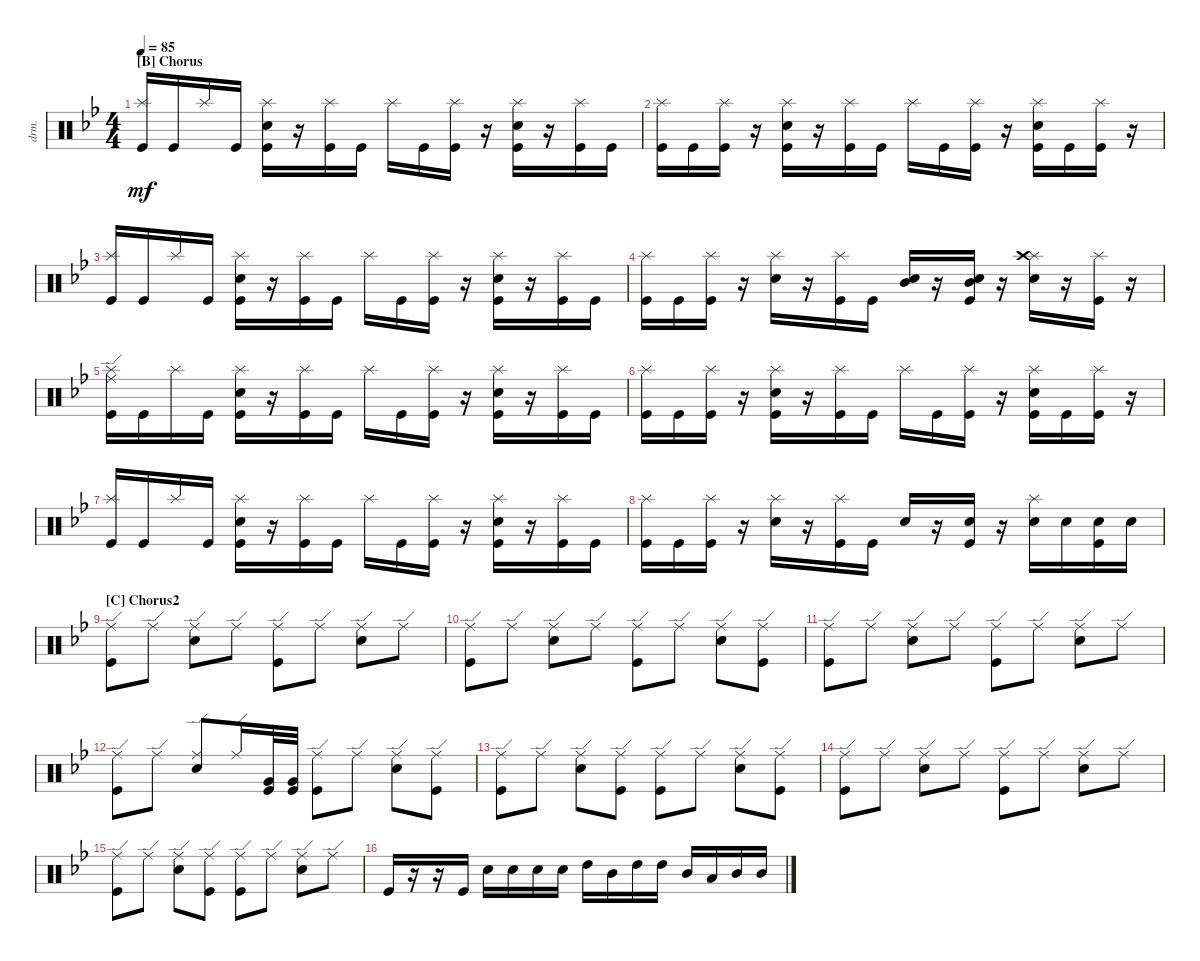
\defaultSystemsLayout 4
\bracketExtendMode groupsimilarinstruments
\otherSystemsTrackNameOrientation horizontal
\track ("Drumkit" "drm.") {solo instrument percussion}
\staff {score}
\articulation defaults
\ts (4 4)
\section ("B" "Chorus")
\scale
1.06963
\tempo 85
\accidentals auto
\clef neutral
\ottava regular
\simile none
\ks bb
("Kick (hit)"{acc forcenatural} "Splash (hit)"{acc forcenatural}).16{dy mf beam Up} "Kick (hit)"{acc forcenatural}.16{beam Up} "Splash (hit)"{acc forcenatural}.16{beam Up} "Kick (hit)"{acc forcenatural}.16{beam Up} ("Kick (hit)"{acc forcenatural} "Snare (hit) 2"{acc forcenatural} "Splash (hit)"{acc forcenatural}).16{beam Down} r.16{beam Down} ("Kick (hit)"{acc forcenatural} "Splash (hit)"{acc forcenatural}).16{beam Down} "Kick (hit)"{acc forcenatural}.16{beam Down} "Splash (hit)"{acc forcenatural}.16{beam Down} "Kick (hit)"{acc forcenatural}.16{beam Down} ("Kick (hit)"{acc forcenatural} "Splash (hit)"{acc forcenatural}).16{beam Down} r.16{beam Down} ("Kick (hit)"{acc forcenatural} "Snare (hit) 2"{acc forcenatural} "Splash (hit)"{acc forcenatural}).16{beam Down} r.16{beam Down} ("Kick (hit)"{acc forcenatural} "Splash (hit)"{acc forcenatural}).16{beam Down} "Kick (hit)"{acc forcenatural}.16{beam Down} |
\scale
0.97679 ("Kick (hit)"{acc forcenatural} "Splash (hit)"{acc forcenatural}).16{beam Down} "Kick (hit)"{acc forcenatural}.16{beam Down} ("Splash (hit)"{acc forcenatural} "Kick (hit)"{acc forcenatural}).16{beam Down} r.16{beam Down} ("Kick (hit)"{acc forcenatural} "Splash (hit)"{acc forcenatural} "Snare (hit) 2"{acc forcenatural}).16{beam Down} r.16{beam Down} ("Kick (hit)"{acc forcenatural} "Splash (hit)"{acc forcenatural}).16{beam Down} "Kick (hit)"{acc forcenatural}.16{beam Down} "Splash (hit)"{acc forcenatural}.16{beam Down} "Kick (hit)"{acc forcenatural}.16{beam Down} ("Kick (hit)"{acc forcenatural} "Splash (hit)"{acc forcenatural}).16{beam Down} r.16{beam Down} ("Kick (hit)"{acc forcenatural} "Splash (hit)"{acc forcenatural} "Snare (hit) 2"{acc forcenatural}).16{beam Down} "Kick (hit)"{acc forcenatural}.16{beam Down} ("Kick (hit)"{acc forcenatural} "Splash (hit)"{acc forcenatural}).16{beam Down} r.16{beam Down} |
\scale
0.97679 ("Kick (hit)"{acc forcenatural} "Splash (hit)"{acc forcenatural}).16{beam Up} "Kick (hit)"{acc forcenatural}.16{beam Up} "Splash (hit)"{acc forcenatural}.16{beam Up} "Kick (hit)"{acc forcenatural}.16{beam Up} ("Kick (hit)"{acc forcenatural} "Snare (hit) 2"{acc forcenatural} "Splash (hit)"{acc forcenatural}).16{beam Down} r.16{beam Down} ("Kick (hit)"{acc forcenatural} "Splash (hit)"{acc forcenatural}).16{beam Down} "Kick (hit)"{acc forcenatural}.16{beam Down} "Splash (hit)"{acc forcenatural}.16{beam Down} "Kick (hit)"{acc forcenatural}.16{beam Down} ("Kick (hit)"{acc forcenatural} "Splash (hit)"{acc forcenatural}).16{beam Down} r.16{beam Down} ("Kick (hit)"{acc forcenatural} "Snare (hit) 2"{acc forcenatural} "Splash (hit)"{acc forcenatural}).16{beam Down} r.16{beam Down} ("Kick (hit)"{acc forcenatural} "Splash (hit)"{acc forcenatural}).16{beam Down} "Kick (hit)"{acc forcenatural}.16{beam Down} |
\scale
0.97679 ("Kick (hit)"{acc forcenatural} "Splash (hit)"{acc forcenatural}).16{beam Down} "Kick (hit)"{acc forcenatural}.16{beam Down} ("Kick (hit)"{acc forcenatural} "Splash (hit)"{acc forcenatural}).16{beam Down} r.16{beam Down} ("Snare (hit) 2"{acc forcenatural} "Splash (hit)"{acc forcenatural}).16{beam Down} r.16{beam Down} ("Kick (hit)"{acc forcenatural} "Splash (hit)"{acc forcenatural}).16{beam Down} "Kick (hit)"{acc forcenatural}.16{beam Down} ("Mid Tom (hit)"{acc forcenatural} "Snare (hit) 2"{acc forcenatural}).16{beam Up} r.16{beam Up} ("Kick (hit)"{acc forcenatural} "Mid Tom (hit)"{acc forcenatural} "Snare (hit) 2"{acc forcenatural}).16{beam Up} r.16{beam Up} ("Snare (hit) 2"{acc forcenatural} "Splash (hit)"{acc forcenatural} "Crash high (hit)"{acc forcenatural}).16{beam Down} r.16{beam Down} ("Kick (hit)"{acc forcenatural} "Splash (hit)"{acc forcenatural}).16{beam Down} r.16{beam Down} |
\scale
1.06495 ("Kick (hit)"{acc forcenatural} "Splash (hit)"{acc forcenatural} "Ride (edge)"{acc forcenatural}).16{beam Down} "Kick (hit)"{acc forcenatural}.16{beam Down} "Splash (hit)"{acc forcenatural}.16{beam Down} "Kick (hit)"{acc forcenatural}.16{beam Down} ("Kick (hit)"{acc forcenatural} "Snare (hit) 2"{acc forcenatural} "Splash (hit)"{acc forcenatural}).16{beam Down} r.16{beam Down} ("Kick (hit)"{acc forcenatural} "Splash (hit)"{acc forcenatural}).16{beam Down} "Kick (hit)"{acc forcenatural}.16{beam Down} "Splash (hit)"{acc forcenatural}.16{beam Down} "Kick (hit)"{acc forcenatural}.16{beam Down} ("Kick (hit)"{acc forcenatural} "Splash (hit)"{acc forcenatural}).16{beam Down} r.16{beam Down} ("Kick (hit)"{acc forcenatural} "Snare (hit) 2"{acc forcenatural} "Splash (hit)"{acc forcenatural}).16{beam Down} r.16{beam Down} ("Kick (hit)"{acc forcenatural} "Splash (hit)"{acc forcenatural}).16{beam Down} "Kick (hit)"{acc forcenatural}.16{beam Down} |
\scale
0.972111 ("Kick (hit)"{acc forcenatural} "Splash (hit)"{acc forcenatural}).16{beam Down} "Kick (hit)"{acc forcenatural}.16{beam Down} ("Splash (hit)"{acc forcenatural} "Kick (hit)"{acc forcenatural}).16{beam Down} r.16{beam Down} ("Kick (hit)"{acc forcenatural} "Splash (hit)"{acc forcenatural} "Snare (hit) 2"{acc forcenatural}).16{beam Down} r.16{beam Down} ("Kick (hit)"{acc forcenatural} "Splash (hit)"{acc forcenatural}).16{beam Down} "Kick (hit)"{acc forcenatural}.16{beam Down} "Splash (hit)"{acc forcenatural}.16{beam Down} "Kick (hit)"{acc forcenatural}.16{beam Down} ("Kick (hit)"{acc forcenatural} "Splash (hit)"{acc forcenatural}).16{beam Down} r.16{beam Down} ("Kick (hit)"{acc forcenatural} "Splash (hit)"{acc forcenatural} "Snare (hit) 2"{acc forcenatural}).16{beam Down} "Kick (hit)"{acc forcenatural}.16{beam Down} ("Kick (hit)"{acc forcenatural} "Splash (hit)"{acc forcenatural}).16{beam Down} r.16{beam Down} |
\scale
0.972111 ("Kick (hit)"{acc forcenatural} "Splash (hit)"{acc forcenatural}).16{beam Up} "Kick (hit)"{acc forcenatural}.16{beam Up} "Splash (hit)"{acc forcenatural}.16{beam Up} "Kick (hit)"{acc forcenatural}.16{beam Up} ("Kick (hit)"{acc forcenatural} "Snare (hit) 2"{acc forcenatural} "Splash (hit)"{acc forcenatural}).16{beam Down} r.16{beam Down} ("Kick (hit)"{acc forcenatural} "Splash (hit)"{acc forcenatural}).16{beam Down} "Kick (hit)"{acc forcenatural}.16{beam Down} "Splash (hit)"{acc forcenatural}.16{beam Down} "Kick (hit)"{acc forcenatural}.16{beam Down} ("Kick (hit)"{acc forcenatural} "Splash (hit)"{acc forcenatural}).16{beam Down} r.16{beam Down} ("Kick (hit)"{acc forcenatural} "Snare (hit) 2"{acc forcenatural} "Splash (hit)"{acc forcenatural}).16{beam Down} r.16{beam Down} ("Kick (hit)"{acc forcenatural} "Splash (hit)"{acc forcenatural}).16{beam Down} "Kick (hit)"{acc forcenatural}.16{beam Down} |
\scale
0.990827 ("Kick (hit)"{acc forcenatural} "Splash (hit)"{acc forcenatural}).16{beam Down} "Kick (hit)"{acc forcenatural}.16{beam Down} ("Kick (hit)"{acc forcenatural} "Splash (hit)"{acc forcenatural}).16{beam Down} r.16{beam Down} ("Snare (hit) 2"{acc forcenatural} "Splash (hit)"{acc forcenatural}).16{beam Down} r.16{beam Down} ("Kick (hit)"{acc forcenatural} "Splash (hit)"{acc forcenatural}).16{beam Down} "Kick (hit)"{acc forcenatural}.16{beam Down} "Snare (hit) 2"{acc forcenatural}.16{beam Up} r.16{beam Up} ("Kick (hit)"{acc forcenatural} "Snare (hit) 2"{acc forcenatural}).16{beam Up} r.16{beam Up} ("Snare (hit) 2"{acc forcenatural} "Splash (hit)"{acc forcenatural}).16{beam Down} "Snare (hit) 2"{acc forcenatural}.16{beam Down} ("Kick (hit)"{acc forcenatural} "Snare (hit) 2"{acc forcenatural}).16{beam Down} "Snare (hit) 2"{acc forcenatural}.16{beam Down} |
\section ("C" "Chorus2")
\scale
1.06963 ("Kick (hit)"{acc forcenatural} "Ride (edge)"{acc forcenatural}).8{beam Down} "Ride (edge)"{acc forcenatural}.8{beam Down} ("Snare (hit) 2"{acc forcenatural} "Ride (edge)"{acc forcenatural}).8{beam Down} "Ride (edge)"{acc forcenatural}.8{beam Down} ("Kick (hit)"{acc forcenatural} "Ride (edge)"{acc forcenatural}).8{beam Down} "Ride (edge)"{acc forcenatural}.8{beam Down} ("Snare (hit) 2"{acc forcenatural} "Ride (edge)"{acc forcenatural}).8{beam Down} "Ride (edge)"{acc forcenatural}.8{beam Down} |
\scale
0.97679 ("Kick (hit)"{acc forcenatural} "Ride (edge)"{acc forcenatural}).8{beam Down} "Ride (edge)"{acc forcenatural}.8{beam Down} ("Snare (hit) 2"{acc forcenatural} "Ride (edge)"{acc forcenatural}).8{beam Down} "Ride (edge)"{acc forcenatural}.8{beam Down} ("Kick (hit)"{acc forcenatural} "Ride (edge)"{acc forcenatural}).8{beam Down} "Ride (edge)"{acc forcenatural}.8{beam Down} ("Snare (hit) 2"{acc forcenatural} "Ride (edge)"{acc forcenatural}).8{beam Down} ("Ride (edge)"{acc forcenatural} "Kick (hit)"{acc forcenatural}).8{beam Down} |
\scale
0.97679 ("Kick (hit)"{acc forcenatural} "Ride (edge)"{acc forcenatural}).8{beam Down} "Ride (edge)"{acc forcenatural}.8{beam Down} ("Snare (hit) 2"{acc forcenatural} "Ride (edge)"{acc forcenatural}).8{beam Down} "Ride (edge)"{acc forcenatural}.8{beam Down} ("Kick (hit)"{acc forcenatural} "Ride (edge)"{acc forcenatural}).8{beam Down} "Ride (edge)"{acc forcenatural}.8{beam Down} ("Snare (hit) 2"{acc forcenatural} "Ride (edge)"{acc forcenatural}).8{beam Down} "Ride (edge)"{acc forcenatural}.8{beam Down} |
\scale
0.97679 ("Kick (hit)"{acc forcenatural} "Ride (edge)"{acc forcenatural}).8{beam Down} "Ride (edge)"{acc forcenatural}.8{beam Down} ("Snare (hit) 2"{acc forcenatural} "Ride (edge)"{acc forcenatural}).8{beam Up} "Ride (edge)"{acc forcenatural}.16{beam Up} ("Kick (hit)"{acc forcenatural} "Very Low Tom (hit)"{acc forcenatural}).32{beam Up} ("Kick (hit)"{acc forcenatural} "Very Low Tom (hit)"{acc forcenatural}).32{beam Up} ("Kick (hit)"{acc forcenatural} "Ride (edge)"{acc forcenatural}).8{beam Down} "Ride (edge)"{acc forcenatural}.8{beam Down} ("Snare (hit) 2"{acc forcenatural} "Ride (edge)"{acc forcenatural}).8{beam Down} ("Ride (edge)"{acc forcenatural} "Kick (hit)"{acc forcenatural}).8{beam Down} |
\scale
1.06495 ("Kick (hit)"{acc forcenatural} "Ride (edge)"{acc forcenatural}).8{beam Down} "Ride (edge)"{acc forcenatural}.8{beam Down} ("Snare (hit) 2"{acc forcenatural} "Ride (edge)"{acc forcenatural}).8{beam Down} ("Ride (edge)"{acc forcenatural} "Kick (hit)"{acc forcenatural}).8{beam Down} ("Kick (hit)"{acc forcenatural} "Ride (edge)"{acc forcenatural}).8{beam Down} "Ride (edge)"{acc forcenatural}.8{beam Down} ("Snare (hit) 2"{acc forcenatural} "Ride (edge)"{acc forcenatural}).8{beam Down} ("Ride (edge)"{acc forcenatural} "Kick (hit)"{acc forcenatural}).8{beam Down} |
\scale
0.972111 ("Kick (hit)"{acc forcenatural} "Ride (edge)"{acc forcenatural}).8{beam Down} "Ride (edge)"{acc forcenatural}.8{beam Down} ("Snare (hit) 2"{acc forcenatural} "Ride (edge)"{acc forcenatural}).8{beam Down} "Ride (edge)"{acc forcenatural}.8{beam Down} ("Kick (hit)"{acc forcenatural} "Ride (edge)"{acc forcenatural}).8{beam Down} "Ride (edge)"{acc forcenatural}.8{beam Down} ("Snare (hit) 2"{acc forcenatural} "Ride (edge)"{acc forcenatural}).8{beam Down} "Ride (edge)"{acc forcenatural}.8{beam Down} |
\scale
0.972111 ("Kick (hit)"{acc forcenatural} "Ride (edge)"{acc forcenatural}).8{beam Down} "Ride (edge)"{acc forcenatural}.8{beam Down} ("Snare (hit) 2"{acc forcenatural} "Ride (edge)"{acc forcenatural}).8{beam Down} ("Ride (edge)"{acc forcenatural} "Kick (hit)"{acc forcenatural}).8{beam Down} ("Kick (hit)"{acc forcenatural} "Ride (edge)"{acc forcenatural}).8{beam Down} "Ride (edge)"{acc forcenatural}.8{beam Down} ("Snare (hit) 2"{acc forcenatural} "Ride (edge)"{acc forcenatural}).8{beam Down} "Ride (edge)"{acc forcenatural}.8{beam Down} |
\scale
0.990827 "Kick (hit)"{acc forcenatural}.16{beam Up} r.16{beam Up} r.16{beam Up} "Kick (hit)"{acc forcenatural}.16{beam Up} "Snare (hit) 2"{acc forcenatural}.16{beam Down} "Snare (hit) 2"{acc forcenatural}.16{beam Down} "Snare (hit) 2"{acc forcenatural}.16{beam Down} "Snare (hit) 2"{acc forcenatural}.16{beam Down} "High Tom (hit)"{acc forcenatural}.16{beam Down} "Mid Tom (hit)"{acc forcenatural}.16{beam Down} "High Tom (hit)"{acc forcenatural}.16{beam Down} "High Tom (hit)"{acc forcenatural}.16{beam Down} "Mid Tom (hit)"{acc forcenatural}.16{beam Up} "Low Tom (hit)"{acc forcenatural}.16{beam Up} "Mid Tom (hit)"{acc forcenatural}.16{beam Up} "Mid Tom (hit)"{acc forcenatural}.16{beam Up}
